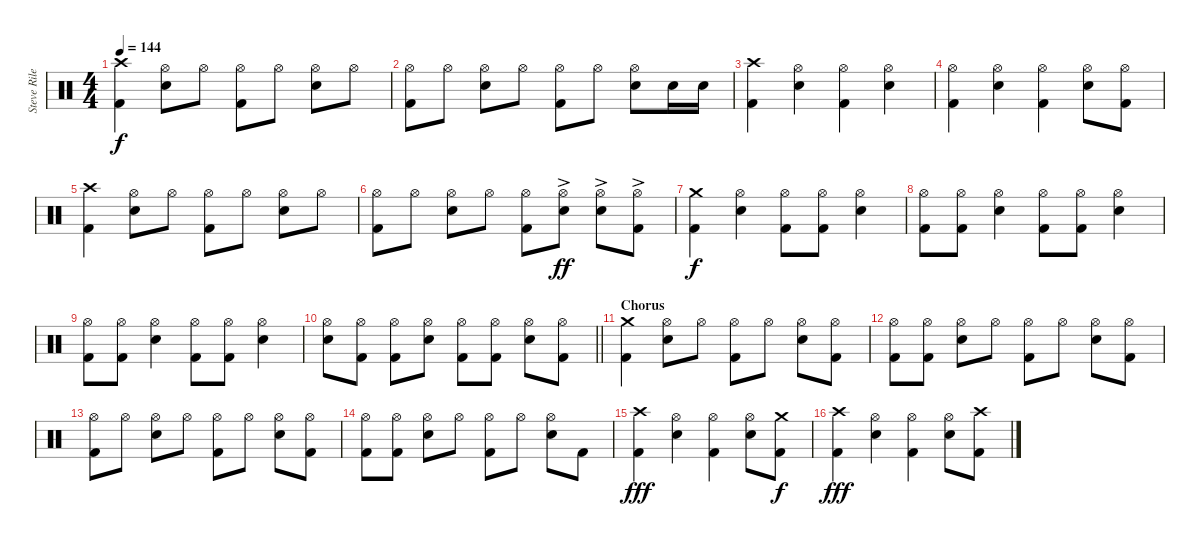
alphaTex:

\track ("Steve Riley" "Steve Rile") {instrument percussion}
\staff {score}
\articulation defaults
\ts (4 4)
\tempo 144
\clef neutral
\ks c
("Crash high (hit)" "Kick (hit) 2").4{dy f} ("Hi-Hat (open)" "Snare (hit) 2").8 "Hi-Hat (open)".8 ("Hi-Hat (open)" "Kick (hit) 2").8 "Hi-Hat (open)".8 ("Hi-Hat (open)" "Snare (hit) 2").8 "Hi-Hat (open)".8 |
("Hi-Hat (open)" "Kick (hit) 2").8 "Hi-Hat (open)".8 ("Hi-Hat (open)" "Snare (hit) 2").8 "Hi-Hat (open)".8 ("Hi-Hat (open)" "Kick (hit) 2").8 "Hi-Hat (open)".8 ("Hi-Hat (open)" "Snare (hit) 2").8 "Snare (hit) 2".16 "Snare (hit) 2".16 |
("Crash high (hit)" "Kick (hit) 2").4 ("Hi-Hat (open)" "Snare (hit) 2").4 ("Hi-Hat (open)" "Kick (hit) 2").4 ("Hi-Hat (open)" "Snare (hit) 2").4 |
("Hi-Hat (open)" "Kick (hit) 2").4 ("Hi-Hat (open)" "Snare (hit) 2").4 ("Hi-Hat (open)" "Kick (hit) 2").4 ("Hi-Hat (open)" "Snare (hit) 2").8 ("Hi-Hat (open)" "Kick (hit) 2").8 |
("Crash high (hit)" "Kick (hit) 2").4 ("Hi-Hat (open)" "Snare (hit) 2").8 "Hi-Hat (open)".8 ("Hi-Hat (open)" "Kick (hit) 2").8 "Hi-Hat (open)".8 ("Hi-Hat (open)" "Snare (hit) 2").8 "Hi-Hat (open)".8 |
("Hi-Hat (open)" "Kick (hit) 2").8 "Hi-Hat (open)".8 ("Hi-Hat (open)" "Snare (hit) 2").8 "Hi-Hat (open)".8 ("Hi-Hat (open)" "Kick (hit) 2").8 ("Hi-Hat (open)"{ac} "Snare (hit) 2").8{dy ff} ("Hi-Hat (open)"{ac} "Snare (hit) 2").8 ("Hi-Hat (open)"{ac} "Kick (hit) 2").8 |
("Crash medium (hit)" "Kick (hit) 2").4{dy f} ("Hi-Hat (open)" "Snare (hit) 2").4 ("Hi-Hat (open)" "Kick (hit) 2").8 ("Hi-Hat (open)" "Kick (hit) 2").8 ("Hi-Hat (open)" "Snare (hit) 2").4 |
("Hi-Hat (open)" "Kick (hit) 2").8 ("Hi-Hat (open)" "Kick (hit) 2").8 ("Hi-Hat (open)" "Snare (hit) 2").4 ("Hi-Hat (open)" "Kick (hit) 2").8 ("Hi-Hat (open)" "Kick (hit) 2").8 ("Hi-Hat (open)" "Snare (hit) 2").4 |
("Hi-Hat (open)" "Kick (hit) 2").8 ("Hi-Hat (open)" "Kick (hit) 2").8 ("Hi-Hat (open)" "Snare (hit) 2").4 ("Hi-Hat (open)" "Kick (hit) 2").8 ("Hi-Hat (open)" "Kick (hit) 2").8 ("Hi-Hat (open)" "Snare (hit) 2").4 |
\barLineRight lightlight
("Hi-Hat (open)" "Snare (hit) 2").8 ("Hi-Hat (open)" "Kick (hit) 2").8 ("Hi-Hat (open)" "Kick (hit) 2").8 ("Hi-Hat (open)" "Snare (hit) 2").8 ("Hi-Hat (open)" "Kick (hit) 2").8 ("Hi-Hat (open)" "Kick (hit) 2").8 ("Hi-Hat (open)" "Snare (hit) 2").8 ("Hi-Hat (open)" "Kick (hit) 2").8 |
\section ("" "Chorus")
("Crash medium (hit)" "Kick (hit) 2").4 ("Hi-Hat (open)" "Snare (hit) 2").8 "Hi-Hat (open)".8 ("Hi-Hat (open)" "Kick (hit) 2").8 "Hi-Hat (open)".8 ("Hi-Hat (open)" "Snare (hit) 2").8 ("Hi-Hat (open)" "Kick (hit) 2").8 |
("Hi-Hat (open)" "Kick (hit) 2").8 ("Hi-Hat (open)" "Kick (hit) 2").8 ("Hi-Hat (open)" "Snare (hit) 2").8 "Hi-Hat (open)".8 ("Hi-Hat (open)" "Kick (hit) 2").8 "Hi-Hat (open)".8 ("Hi-Hat (open)" "Snare (hit) 2").8 ("Hi-Hat (open)" "Kick (hit) 2").8 |
("Hi-Hat (open)" "Kick (hit) 2").8 "Hi-Hat (open)".8 ("Hi-Hat (open)" "Snare (hit) 2").8 "Hi-Hat (open)".8 ("Hi-Hat (open)" "Kick (hit) 2").8 "Hi-Hat (open)".8 ("Hi-Hat (open)" "Snare (hit) 2").8 ("Hi-Hat (open)" "Kick (hit) 2").8 |
("Hi-Hat (open)" "Kick (hit) 2").8 ("Hi-Hat (open)" "Kick (hit) 2").8 ("Hi-Hat (open)" "Snare (hit) 2").8 "Hi-Hat (open)".8 ("Hi-Hat (open)" "Kick (hit) 2").8 "Hi-Hat (open)".8 ("Hi-Hat (open)" "Snare (hit) 2").8 "Kick (hit) 2".8 |
("Crash high (hit)" "Kick (hit) 2").4{dy fff} ("Hi-Hat (open)" "Snare (hit) 2").4 ("Hi-Hat (open)" "Kick (hit) 2").4 ("Hi-Hat (open)" "Snare (hit) 2").8 ("Crash medium (hit)" "Kick (hit) 2").8{dy f} |
("Crash high (hit)" "Kick (hit) 2").4{dy fff} ("Hi-Hat (open)" "Snare (hit) 2").4 ("Hi-Hat (open)" "Kick (hit) 2").4 ("Hi-Hat (open)" "Snare (hit) 2").8 ("Crash high (hit)" "Kick (hit) 2").8
